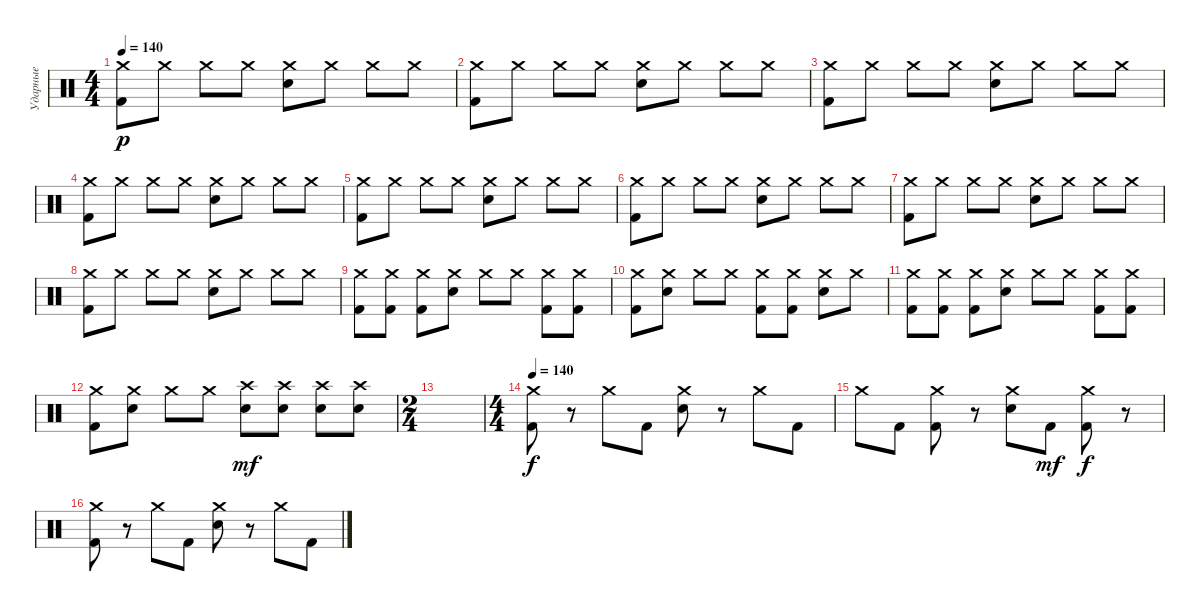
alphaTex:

\track ("Ударные" "Ударные") {instrument percussion}
\staff {score}
\articulation defaults
\ts (4 4)
\tempo 140
\clef neutral
\ks c
("Crash medium (hit)" "Kick (hit) 2").8{dy p} "Crash medium (hit)".8 "Crash medium (hit)".8 "Crash medium (hit)".8 ("Crash medium (hit)" "Snare (hit) 2").8 "Crash medium (hit)".8 "Crash medium (hit)".8 "Crash medium (hit)".8 |
("Crash medium (hit)" "Kick (hit) 2").8 "Crash medium (hit)".8 "Crash medium (hit)".8 "Crash medium (hit)".8 ("Crash medium (hit)" "Snare (hit) 2").8 "Crash medium (hit)".8 "Crash medium (hit)".8 "Crash medium (hit)".8 |
("Crash medium (hit)" "Kick (hit) 2").8 "Crash medium (hit)".8 "Crash medium (hit)".8 "Crash medium (hit)".8 ("Crash medium (hit)" "Snare (hit) 2").8 "Crash medium (hit)".8 "Crash medium (hit)".8 "Crash medium (hit)".8 |
("Crash medium (hit)" "Kick (hit) 2").8 "Crash medium (hit)".8 "Crash medium (hit)".8 "Crash medium (hit)".8 ("Crash medium (hit)" "Snare (hit) 2").8 "Crash medium (hit)".8 "Crash medium (hit)".8 "Crash medium (hit)".8 |
("Crash medium (hit)" "Kick (hit) 2").8 "Crash medium (hit)".8 "Crash medium (hit)".8 "Crash medium (hit)".8 ("Crash medium (hit)" "Snare (hit) 2").8 "Crash medium (hit)".8 "Crash medium (hit)".8 "Crash medium (hit)".8 |
("Crash medium (hit)" "Kick (hit) 2").8 "Crash medium (hit)".8 "Crash medium (hit)".8 "Crash medium (hit)".8 ("Crash medium (hit)" "Snare (hit) 2").8 "Crash medium (hit)".8 "Crash medium (hit)".8 "Crash medium (hit)".8 |
("Crash medium (hit)" "Kick (hit) 2").8 "Crash medium (hit)".8 "Crash medium (hit)".8 "Crash medium (hit)".8 ("Crash medium (hit)" "Snare (hit) 2").8 "Crash medium (hit)".8 "Crash medium (hit)".8 "Crash medium (hit)".8 |
("Crash medium (hit)" "Kick (hit) 2").8 "Crash medium (hit)".8 "Crash medium (hit)".8 "Crash medium (hit)".8 ("Crash medium (hit)" "Snare (hit) 2").8 "Crash medium (hit)".8 "Crash medium (hit)".8 "Crash medium (hit)".8 |
("Crash medium (hit)" "Kick (hit) 2").8 ("Crash medium (hit)" "Kick (hit) 2").8 ("Crash medium (hit)" "Kick (hit) 2").8 ("Crash medium (hit)" "Snare (hit) 2").8 "Crash medium (hit)".8 "Crash medium (hit)".8 ("Crash medium (hit)" "Kick (hit) 2").8 ("Crash medium (hit)" "Kick (hit) 2").8 |
("Crash medium (hit)" "Kick (hit) 2").8 ("Crash medium (hit)" "Snare (hit) 2").8 "Crash medium (hit)".8 "Crash medium (hit)".8 ("Crash medium (hit)" "Kick (hit) 2").8 ("Crash medium (hit)" "Kick (hit) 2").8 ("Crash medium (hit)" "Snare (hit) 2").8 "Crash medium (hit)".8 |
("Crash medium (hit)" "Kick (hit) 2").8 ("Crash medium (hit)" "Kick (hit) 2").8 ("Crash medium (hit)" "Kick (hit) 2").8 ("Crash medium (hit)" "Snare (hit) 2").8 "Crash medium (hit)".8 "Crash medium (hit)".8 ("Crash medium (hit)" "Kick (hit) 2").8 ("Crash medium (hit)" "Kick (hit) 2").8 |
("Crash medium (hit)" "Kick (hit) 2").8 ("Crash medium (hit)" "Snare (hit) 2").8 "Crash medium (hit)".8 "Crash medium (hit)".8 ("Crash high (hit)" "Snare (hit) 2").8{dy mf} ("Crash high (hit)" "Snare (hit) 2").8 ("Crash high (hit)" "Snare (hit) 2").8 ("Crash high (hit)" "Snare (hit) 2").8 |
\ts (2 4)
|
\ts (4 4)
\tempo 140
("Crash medium (hit)" "Kick (hit) 2").8{dy f} r.8 "Crash medium (hit)".8 "Kick (hit) 2".8 ("Crash medium (hit)" "Snare (hit) 2").8 r.8 "Crash medium (hit)".8 "Kick (hit) 2".8 |
"Crash medium (hit)".8 "Kick (hit) 2".8 ("Crash medium (hit)" "Kick (hit) 2").8 r.8 ("Crash medium (hit)" "Snare (hit) 2").8 "Kick (hit) 2".8{dy mf} ("Crash medium (hit)" "Kick (hit) 2").8{dy f} r.8 |
("Crash medium (hit)" "Kick (hit) 2").8 r.8 "Crash medium (hit)".8 "Kick (hit) 2".8 ("Crash medium (hit)" "Snare (hit) 2").8 r.8 "Crash medium (hit)".8 "Kick (hit) 2".8
